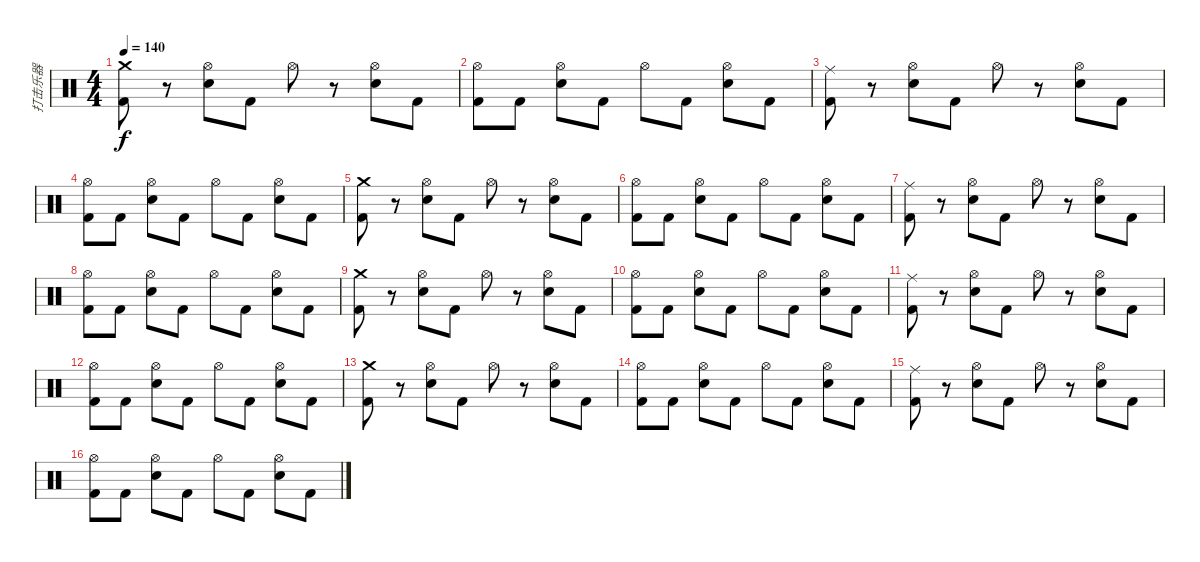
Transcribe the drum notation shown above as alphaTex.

\track ("打击乐器" "打击乐器") {instrument percussion}
\staff {score}
\articulation defaults
\ts (4 4)
\tempo 140
\clef neutral
\ks c
("Crash medium (hit)" "Kick (hit) 2").8{dy f} r.8 ("Hi-Hat (open)" "Snare (hit) 2").8 "Kick (hit) 2".8 "Hi-Hat (open)".8 r.8 ("Hi-Hat (open)" "Snare (hit) 2").8 "Kick (hit) 2".8 |
("Hi-Hat (open)" "Kick (hit) 2").8 "Kick (hit) 2".8 ("Hi-Hat (open)" "Snare (hit) 2").8 "Kick (hit) 2".8 "Hi-Hat (open)".8 "Kick (hit) 2".8 ("Hi-Hat (open)" "Snare (hit) 2").8 "Kick (hit) 2".8 |
("Ride (middle)" "Kick (hit) 2").8 r.8 ("Hi-Hat (open)" "Snare (hit) 2").8 "Kick (hit) 2".8 "Hi-Hat (open)".8 r.8 ("Hi-Hat (open)" "Snare (hit) 2").8 "Kick (hit) 2".8 |
("Hi-Hat (open)" "Kick (hit) 2").8 "Kick (hit) 2".8 ("Hi-Hat (open)" "Snare (hit) 2").8 "Kick (hit) 2".8 "Hi-Hat (open)".8 "Kick (hit) 2".8 ("Hi-Hat (open)" "Snare (hit) 2").8 "Kick (hit) 2".8 |
("Crash medium (hit)" "Kick (hit) 2").8 r.8 ("Hi-Hat (open)" "Snare (hit) 2").8 "Kick (hit) 2".8 "Hi-Hat (open)".8 r.8 ("Hi-Hat (open)" "Snare (hit) 2").8 "Kick (hit) 2".8 |
("Hi-Hat (open)" "Kick (hit) 2").8 "Kick (hit) 2".8 ("Hi-Hat (open)" "Snare (hit) 2").8 "Kick (hit) 2".8 "Hi-Hat (open)".8 "Kick (hit) 2".8 ("Hi-Hat (open)" "Snare (hit) 2").8 "Kick (hit) 2".8 |
("Ride (middle)" "Kick (hit) 2").8 r.8 ("Hi-Hat (open)" "Snare (hit) 2").8 "Kick (hit) 2".8 "Hi-Hat (open)".8 r.8 ("Hi-Hat (open)" "Snare (hit) 2").8 "Kick (hit) 2".8 |
("Hi-Hat (open)" "Kick (hit) 2").8 "Kick (hit) 2".8 ("Hi-Hat (open)" "Snare (hit) 2").8 "Kick (hit) 2".8 "Hi-Hat (open)".8 "Kick (hit) 2".8 ("Hi-Hat (open)" "Snare (hit) 2").8 "Kick (hit) 2".8 |
("Crash medium (hit)" "Kick (hit) 2").8 r.8 ("Hi-Hat (open)" "Snare (hit) 2").8 "Kick (hit) 2".8 "Hi-Hat (open)".8 r.8 ("Hi-Hat (open)" "Snare (hit) 2").8 "Kick (hit) 2".8 |
("Hi-Hat (open)" "Kick (hit) 2").8 "Kick (hit) 2".8 ("Hi-Hat (open)" "Snare (hit) 2").8 "Kick (hit) 2".8 "Hi-Hat (open)".8 "Kick (hit) 2".8 ("Hi-Hat (open)" "Snare (hit) 2").8 "Kick (hit) 2".8 |
("Ride (middle)" "Kick (hit) 2").8 r.8 ("Hi-Hat (open)" "Snare (hit) 2").8 "Kick (hit) 2".8 "Hi-Hat (open)".8 r.8 ("Hi-Hat (open)" "Snare (hit) 2").8 "Kick (hit) 2".8 |
("Hi-Hat (open)" "Kick (hit) 2").8 "Kick (hit) 2".8 ("Hi-Hat (open)" "Snare (hit) 2").8 "Kick (hit) 2".8 "Hi-Hat (open)".8 "Kick (hit) 2".8 ("Hi-Hat (open)" "Snare (hit) 2").8 "Kick (hit) 2".8 |
("Crash medium (hit)" "Kick (hit) 2").8 r.8 ("Hi-Hat (open)" "Snare (hit) 2").8 "Kick (hit) 2".8 "Hi-Hat (open)".8 r.8 ("Hi-Hat (open)" "Snare (hit) 2").8 "Kick (hit) 2".8 |
("Hi-Hat (open)" "Kick (hit) 2").8 "Kick (hit) 2".8 ("Hi-Hat (open)" "Snare (hit) 2").8 "Kick (hit) 2".8 "Hi-Hat (open)".8 "Kick (hit) 2".8 ("Hi-Hat (open)" "Snare (hit) 2").8 "Kick (hit) 2".8 |
("Ride (middle)" "Kick (hit) 2").8 r.8 ("Hi-Hat (open)" "Snare (hit) 2").8 "Kick (hit) 2".8 "Hi-Hat (open)".8 r.8 ("Hi-Hat (open)" "Snare (hit) 2").8 "Kick (hit) 2".8 |
("Hi-Hat (open)" "Kick (hit) 2").8 "Kick (hit) 2".8 ("Hi-Hat (open)" "Snare (hit) 2").8 "Kick (hit) 2".8 "Hi-Hat (open)".8 "Kick (hit) 2".8 ("Hi-Hat (open)" "Snare (hit) 2").8 "Kick (hit) 2".8
